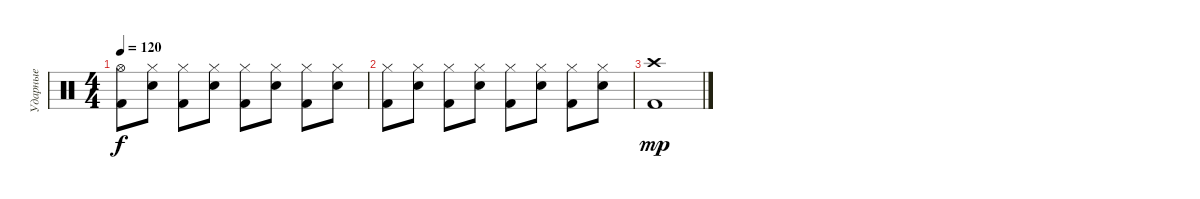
\track ("Ударные" "Ударные") {instrument percussion}
\staff {score}
\articulation defaults
\ts (4 4)
\tempo 120
\clef neutral
\ks c
("Kick (hit) 2" "Hi-Hat (open)").8{dy f} ("Electric Snare (hit)" "Hi-Hat (closed)").8 ("Kick (hit) 2" "Hi-Hat (closed)").8 ("Electric Snare (hit)" "Hi-Hat (closed)").8 ("Kick (hit) 2" "Hi-Hat (closed)").8 ("Electric Snare (hit)" "Hi-Hat (closed)").8 ("Kick (hit) 2" "Hi-Hat (closed)").8 ("Electric Snare (hit)" "Hi-Hat (closed)").8 |
("Kick (hit) 2" "Hi-Hat (closed)").8 ("Electric Snare (hit)" "Hi-Hat (closed)").8 ("Kick (hit) 2" "Hi-Hat (closed)").8 ("Electric Snare (hit)" "Hi-Hat (closed)").8 ("Kick (hit) 2" "Hi-Hat (closed)").8 ("Electric Snare (hit)" "Hi-Hat (closed)").8 ("Kick (hit) 2" "Hi-Hat (closed)").8 ("Electric Snare (hit)" "Hi-Hat (closed)").8 |
("Kick (hit) 2" "Crash high (hit)").1{dy mp}
